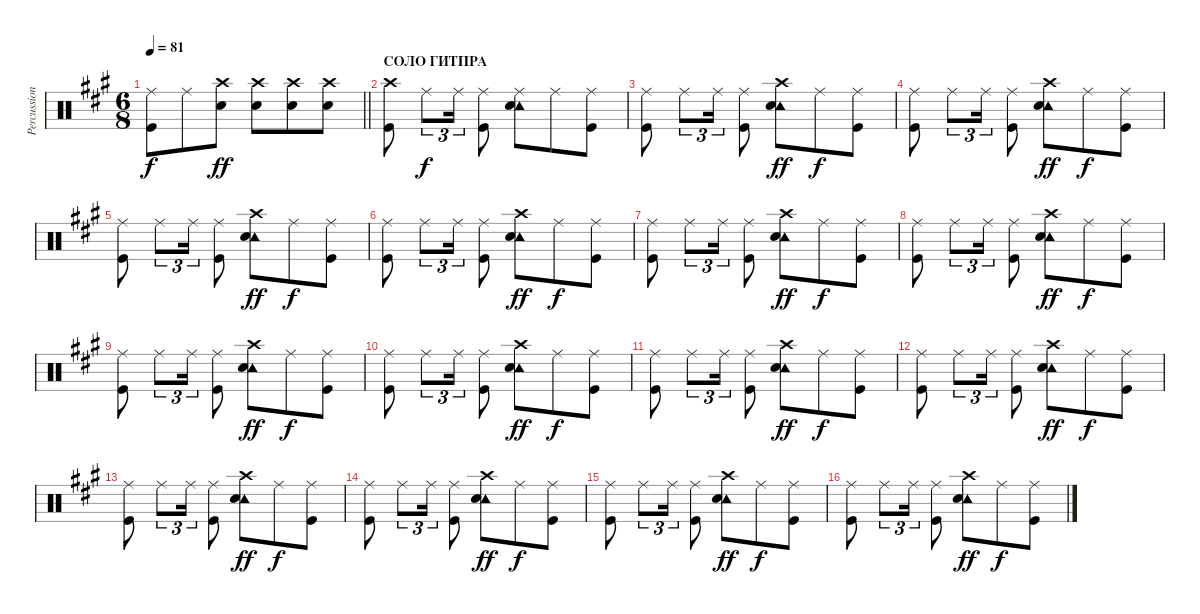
\track ("Percussion" "Percussion") {instrument percussion}
\staff {score}
\articulation defaults
\ts (6 8)
\tempo 81
\clef neutral
\barLineRight lightlight
\ks a
("Ride (middle)" "Kick (hit)").8{dy f} "Ride (middle)".8 ("Crash high (hit)" "Snare (hit) 2").8{dy ff} ("Crash high (hit)" "Snare (hit) 2").8 ("Crash high (hit)" "Snare (hit) 2").8 ("Crash high (hit)" "Snare (hit) 2").8 |
\section ("" "СОЛО ГИТПРА")
("Crash high (hit)" "Kick (hit)").8 "Ride (middle)".8{tu (3 2) dy f} "Ride (middle)".16{tu (3 2)} ("Ride (middle)" "Kick (hit)").8 ("Ride (middle)" "Tambourine (hit)" "Snare (hit) 2").8 "Ride (middle)".8 ("Ride (middle)" "Kick (hit)").8 |
("Ride (middle)" "Kick (hit)").8 "Ride (middle)".8{tu (3 2)} "Ride (middle)".16{tu (3 2)} ("Ride (middle)" "Kick (hit)").8 ("Crash high (hit)" "Tambourine (hit)" "Snare (hit) 2").8{dy ff} "Ride (middle)".8{dy f} ("Ride (middle)" "Kick (hit)").8 |
("Ride (middle)" "Kick (hit)").8 "Ride (middle)".8{tu (3 2)} "Ride (middle)".16{tu (3 2)} ("Ride (middle)" "Kick (hit)").8 ("Crash high (hit)" "Tambourine (hit)" "Snare (hit) 2").8{dy ff} "Ride (middle)".8{dy f} ("Ride (middle)" "Kick (hit)").8 |
("Ride (middle)" "Kick (hit)").8 "Ride (middle)".8{tu (3 2)} "Ride (middle)".16{tu (3 2)} ("Ride (middle)" "Kick (hit)").8 ("Crash high (hit)" "Tambourine (hit)" "Snare (hit) 2").8{dy ff} "Ride (middle)".8{dy f} ("Ride (middle)" "Kick (hit)").8 |
("Ride (middle)" "Kick (hit)").8 "Ride (middle)".8{tu (3 2)} "Ride (middle)".16{tu (3 2)} ("Ride (middle)" "Kick (hit)").8 ("Crash high (hit)" "Tambourine (hit)" "Snare (hit) 2").8{dy ff} "Ride (middle)".8{dy f} ("Ride (middle)" "Kick (hit)").8 |
("Ride (middle)" "Kick (hit)").8 "Ride (middle)".8{tu (3 2)} "Ride (middle)".16{tu (3 2)} ("Ride (middle)" "Kick (hit)").8 ("Crash high (hit)" "Tambourine (hit)" "Snare (hit) 2").8{dy ff} "Ride (middle)".8{dy f} ("Ride (middle)" "Kick (hit)").8 |
("Ride (middle)" "Kick (hit)").8 "Ride (middle)".8{tu (3 2)} "Ride (middle)".16{tu (3 2)} ("Ride (middle)" "Kick (hit)").8 ("Crash high (hit)" "Tambourine (hit)" "Snare (hit) 2").8{dy ff} "Ride (middle)".8{dy f} ("Ride (middle)" "Kick (hit)").8 |
("Ride (middle)" "Kick (hit)").8 "Ride (middle)".8{tu (3 2)} "Ride (middle)".16{tu (3 2)} ("Ride (middle)" "Kick (hit)").8 ("Crash high (hit)" "Tambourine (hit)" "Snare (hit) 2").8{dy ff} "Ride (middle)".8{dy f} ("Ride (middle)" "Kick (hit)").8 |
("Ride (middle)" "Kick (hit)").8 "Ride (middle)".8{tu (3 2)} "Ride (middle)".16{tu (3 2)} ("Ride (middle)" "Kick (hit)").8 ("Crash high (hit)" "Tambourine (hit)" "Snare (hit) 2").8{dy ff} "Ride (middle)".8{dy f} ("Ride (middle)" "Kick (hit)").8 |
("Ride (middle)" "Kick (hit)").8 "Ride (middle)".8{tu (3 2)} "Ride (middle)".16{tu (3 2)} ("Ride (middle)" "Kick (hit)").8 ("Crash high (hit)" "Tambourine (hit)" "Snare (hit) 2").8{dy ff} "Ride (middle)".8{dy f} ("Ride (middle)" "Kick (hit)").8 |
("Ride (middle)" "Kick (hit)").8 "Ride (middle)".8{tu (3 2)} "Ride (middle)".16{tu (3 2)} ("Ride (middle)" "Kick (hit)").8 ("Crash high (hit)" "Tambourine (hit)" "Snare (hit) 2").8{dy ff} "Ride (middle)".8{dy f} ("Ride (middle)" "Kick (hit)").8 |
("Ride (middle)" "Kick (hit)").8 "Ride (middle)".8{tu (3 2)} "Ride (middle)".16{tu (3 2)} ("Ride (middle)" "Kick (hit)").8 ("Crash high (hit)" "Tambourine (hit)" "Snare (hit) 2").8{dy ff} "Ride (middle)".8{dy f} ("Ride (middle)" "Kick (hit)").8 |
("Ride (middle)" "Kick (hit)").8 "Ride (middle)".8{tu (3 2)} "Ride (middle)".16{tu (3 2)} ("Ride (middle)" "Kick (hit)").8 ("Crash high (hit)" "Tambourine (hit)" "Snare (hit) 2").8{dy ff} "Ride (middle)".8{dy f} ("Ride (middle)" "Kick (hit)").8 |
("Ride (middle)" "Kick (hit)").8 "Ride (middle)".8{tu (3 2)} "Ride (middle)".16{tu (3 2)} ("Ride (middle)" "Kick (hit)").8 ("Crash high (hit)" "Tambourine (hit)" "Snare (hit) 2").8{dy ff} "Ride (middle)".8{dy f} ("Ride (middle)" "Kick (hit)").8 |
("Ride (middle)" "Kick (hit)").8 "Ride (middle)".8{tu (3 2)} "Ride (middle)".16{tu (3 2)} ("Ride (middle)" "Kick (hit)").8 ("Crash high (hit)" "Tambourine (hit)" "Snare (hit) 2").8{dy ff} "Ride (middle)".8{dy f} ("Ride (middle)" "Kick (hit)").8
